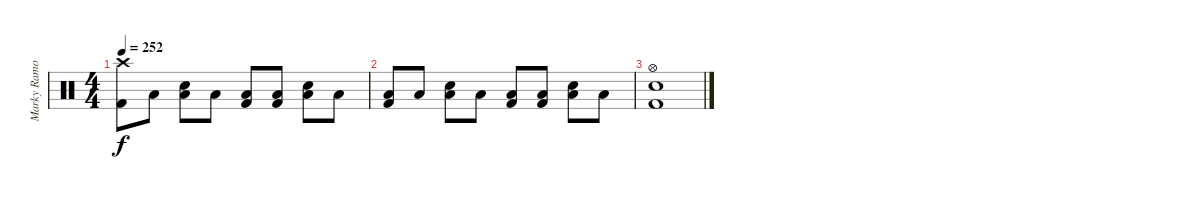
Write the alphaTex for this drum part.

\track ("Marky Ramone - Drums" "Marky Ramo") {instrument percussion}
\staff {score}
\articulation defaults
\ts (4 4)
\tempo 252
\clef neutral
\ks c
("Crash high (hit)" "Kick (hit) 2").8{dy f} "Low Floor Tom (hit)".8{volume 10} ("Low Floor Tom (hit)" "Snare (hit) 2").8 "Low Floor Tom (hit)".8{volume 10} ("Low Floor Tom (hit)" "Kick (hit) 2").8 ("Low Floor Tom (hit)" "Kick (hit) 2").8{volume 10} ("Low Floor Tom (hit)" "Snare (hit) 2").8 "Low Floor Tom (hit)".8{volume 10} |
("Low Floor Tom (hit)" "Kick (hit) 2").8 "Low Floor Tom (hit)".8{volume 10} ("Low Floor Tom (hit)" "Snare (hit) 2").8 "Low Floor Tom (hit)".8{volume 10} ("Low Floor Tom (hit)" "Kick (hit) 2").8 ("Low Floor Tom (hit)" "Kick (hit) 2").8{volume 10} ("Low Floor Tom (hit)" "Snare (hit) 2").8 "Low Floor Tom (hit)".8{volume 10} |
("Hi-Hat (open)" "Snare (hit) 2" "Kick (hit) 2").1
